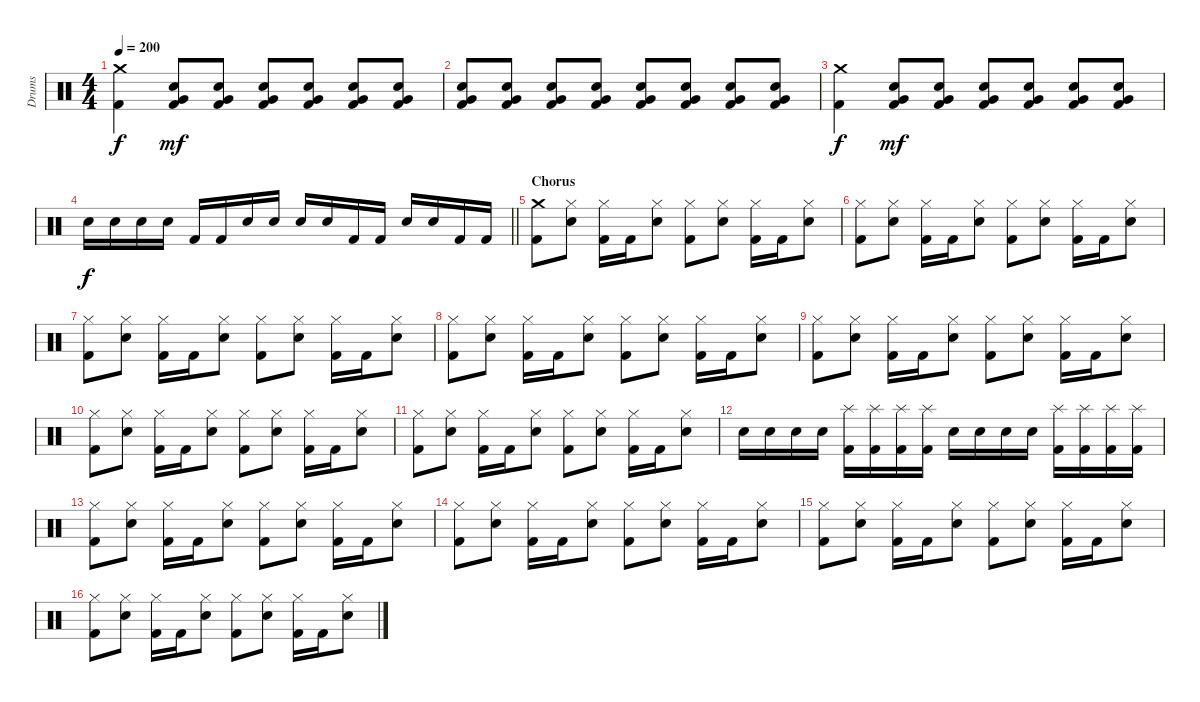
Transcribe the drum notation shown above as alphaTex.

\track ("Drums" "Drums") {instrument percussion}
\staff {score}
\articulation defaults
\ts (4 4)
\tempo 200
\clef neutral
\ks c
("Kick (hit) 2" "Crash medium (hit)").4{dy f} ("Kick (hit) 2" "Snare (hit) 2" "Very Low Tom (hit)").8{dy mf} ("Kick (hit) 2" "Snare (hit) 2" "Very Low Tom (hit)").8 ("Kick (hit) 2" "Snare (hit) 2" "Very Low Tom (hit)").8 ("Kick (hit) 2" "Snare (hit) 2" "Very Low Tom (hit)").8 ("Kick (hit) 2" "Snare (hit) 2" "Very Low Tom (hit)").8 ("Kick (hit) 2" "Snare (hit) 2" "Very Low Tom (hit)").8 |
("Kick (hit) 2" "Snare (hit) 2" "Very Low Tom (hit)").8 ("Kick (hit) 2" "Snare (hit) 2" "Very Low Tom (hit)").8 ("Kick (hit) 2" "Snare (hit) 2" "Very Low Tom (hit)").8 ("Kick (hit) 2" "Snare (hit) 2" "Very Low Tom (hit)").8 ("Kick (hit) 2" "Snare (hit) 2" "Very Low Tom (hit)").8 ("Kick (hit) 2" "Snare (hit) 2" "Very Low Tom (hit)").8 ("Kick (hit) 2" "Snare (hit) 2" "Very Low Tom (hit)").8 ("Kick (hit) 2" "Snare (hit) 2" "Very Low Tom (hit)").8 |
("Kick (hit) 2" "Crash medium (hit)").4{dy f} ("Kick (hit) 2" "Snare (hit) 2" "Very Low Tom (hit)").8{dy mf} ("Kick (hit) 2" "Snare (hit) 2" "Very Low Tom (hit)").8 ("Kick (hit) 2" "Snare (hit) 2" "Very Low Tom (hit)").8 ("Kick (hit) 2" "Snare (hit) 2" "Very Low Tom (hit)").8 ("Kick (hit) 2" "Snare (hit) 2" "Very Low Tom (hit)").8 ("Kick (hit) 2" "Snare (hit) 2" "Very Low Tom (hit)").8 |
\barLineRight lightlight "Snare (hit) 2".16{dy f} "Snare (hit) 2".16 "Snare (hit) 2".16 "Snare (hit) 2".16 "Kick (hit) 2".16 "Kick (hit) 2".16 "Snare (hit) 2".16 "Snare (hit) 2".16 "Snare (hit) 2".16 "Snare (hit) 2".16 "Kick (hit) 2".16 "Kick (hit) 2".16 "Snare (hit) 2".16 "Snare (hit) 2".16 "Kick (hit) 2".16 "Kick (hit) 2".16
|
\section ("" "Chorus")
("Kick (hit) 2" "Crash medium (hit)").8 ("Snare (hit) 2" "Hi-Hat (closed)").8 ("Kick (hit) 2" "Hi-Hat (closed)").16 "Kick (hit) 2".16 ("Snare (hit) 2" "Hi-Hat (closed)").8 ("Kick (hit) 2" "Hi-Hat (closed)").8 ("Snare (hit) 2" "Hi-Hat (closed)").8 ("Kick (hit) 2" "Hi-Hat (closed)").16 "Kick (hit) 2".16 ("Snare (hit) 2" "Hi-Hat (closed)").8 |
("Kick (hit) 2" "Hi-Hat (closed)").8 ("Snare (hit) 2" "Hi-Hat (closed)").8 ("Kick (hit) 2" "Hi-Hat (closed)").16 "Kick (hit) 2".16 ("Snare (hit) 2" "Hi-Hat (closed)").8 ("Kick (hit) 2" "Hi-Hat (closed)").8 ("Snare (hit) 2" "Hi-Hat (closed)").8 ("Kick (hit) 2" "Hi-Hat (closed)").16 "Kick (hit) 2".16 ("Snare (hit) 2" "Hi-Hat (closed)").8 |
("Kick (hit) 2" "Hi-Hat (closed)").8 ("Snare (hit) 2" "Hi-Hat (closed)").8 ("Kick (hit) 2" "Hi-Hat (closed)").16 "Kick (hit) 2".16 ("Snare (hit) 2" "Hi-Hat (closed)").8 ("Kick (hit) 2" "Hi-Hat (closed)").8 ("Snare (hit) 2" "Hi-Hat (closed)").8 ("Kick (hit) 2" "Hi-Hat (closed)").16 "Kick (hit) 2".16 ("Snare (hit) 2" "Hi-Hat (closed)").8 |
("Kick (hit) 2" "Hi-Hat (closed)").8 ("Snare (hit) 2" "Hi-Hat (closed)").8 ("Kick (hit) 2" "Hi-Hat (closed)").16 "Kick (hit) 2".16 ("Snare (hit) 2" "Hi-Hat (closed)").8 ("Kick (hit) 2" "Hi-Hat (closed)").8 ("Snare (hit) 2" "Hi-Hat (closed)").8 ("Kick (hit) 2" "Hi-Hat (closed)").16 "Kick (hit) 2".16 ("Snare (hit) 2" "Hi-Hat (closed)").8 |
("Kick (hit) 2" "Hi-Hat (closed)").8 ("Snare (hit) 2" "Hi-Hat (closed)").8 ("Kick (hit) 2" "Hi-Hat (closed)").16 "Kick (hit) 2".16 ("Snare (hit) 2" "Hi-Hat (closed)").8 ("Kick (hit) 2" "Hi-Hat (closed)").8 ("Snare (hit) 2" "Hi-Hat (closed)").8 ("Kick (hit) 2" "Hi-Hat (closed)").16 "Kick (hit) 2".16 ("Snare (hit) 2" "Hi-Hat (closed)").8 |
("Kick (hit) 2" "Hi-Hat (closed)").8 ("Snare (hit) 2" "Hi-Hat (closed)").8 ("Kick (hit) 2" "Hi-Hat (closed)").16 "Kick (hit) 2".16 ("Snare (hit) 2" "Hi-Hat (closed)").8 ("Kick (hit) 2" "Hi-Hat (closed)").8 ("Snare (hit) 2" "Hi-Hat (closed)").8 ("Kick (hit) 2" "Hi-Hat (closed)").16 "Kick (hit) 2".16 ("Snare (hit) 2" "Hi-Hat (closed)").8 |
("Kick (hit) 2" "Hi-Hat (closed)").8 ("Snare (hit) 2" "Hi-Hat (closed)").8 ("Kick (hit) 2" "Hi-Hat (closed)").16 "Kick (hit) 2".16 ("Snare (hit) 2" "Hi-Hat (closed)").8 ("Kick (hit) 2" "Hi-Hat (closed)").8 ("Snare (hit) 2" "Hi-Hat (closed)").8 ("Kick (hit) 2" "Hi-Hat (closed)").16 "Kick (hit) 2".16 ("Snare (hit) 2" "Hi-Hat (closed)").8 |
"Snare (hit) 2".16 "Snare (hit) 2".16 "Snare (hit) 2".16 "Snare (hit) 2".16 ("Kick (hit) 2" "Splash (hit)").16 ("Kick (hit) 2" "Splash (hit)").16 ("Kick (hit) 2" "Splash (hit)").16 ("Kick (hit) 2" "Splash (hit)").16 "Snare (hit) 2".16 "Snare (hit) 2".16 "Snare (hit) 2".16 "Snare (hit) 2".16 ("Kick (hit) 2" "Splash (hit)").16 ("Kick (hit) 2" "Splash (hit)").16 ("Kick (hit) 2" "Splash (hit)").16 ("Kick (hit) 2" "Splash (hit)").16 |
("Kick (hit) 2" "Hi-Hat (closed)").8 ("Snare (hit) 2" "Hi-Hat (closed)").8 ("Kick (hit) 2" "Hi-Hat (closed)").16 "Kick (hit) 2".16 ("Snare (hit) 2" "Hi-Hat (closed)").8 ("Kick (hit) 2" "Hi-Hat (closed)").8 ("Snare (hit) 2" "Hi-Hat (closed)").8 ("Kick (hit) 2" "Hi-Hat (closed)").16 "Kick (hit) 2".16 ("Snare (hit) 2" "Hi-Hat (closed)").8 |
("Kick (hit) 2" "Hi-Hat (closed)").8 ("Snare (hit) 2" "Hi-Hat (closed)").8 ("Kick (hit) 2" "Hi-Hat (closed)").16 "Kick (hit) 2".16 ("Snare (hit) 2" "Hi-Hat (closed)").8 ("Kick (hit) 2" "Hi-Hat (closed)").8 ("Snare (hit) 2" "Hi-Hat (closed)").8 ("Kick (hit) 2" "Hi-Hat (closed)").16 "Kick (hit) 2".16 ("Snare (hit) 2" "Hi-Hat (closed)").8 |
("Kick (hit) 2" "Hi-Hat (closed)").8 ("Snare (hit) 2" "Hi-Hat (closed)").8 ("Kick (hit) 2" "Hi-Hat (closed)").16 "Kick (hit) 2".16 ("Snare (hit) 2" "Hi-Hat (closed)").8 ("Kick (hit) 2" "Hi-Hat (closed)").8 ("Snare (hit) 2" "Hi-Hat (closed)").8 ("Kick (hit) 2" "Hi-Hat (closed)").16 "Kick (hit) 2".16 ("Snare (hit) 2" "Hi-Hat (closed)").8 |
("Kick (hit) 2" "Hi-Hat (closed)").8 ("Snare (hit) 2" "Hi-Hat (closed)").8 ("Kick (hit) 2" "Hi-Hat (closed)").16 "Kick (hit) 2".16 ("Snare (hit) 2" "Hi-Hat (closed)").8 ("Kick (hit) 2" "Hi-Hat (closed)").8 ("Snare (hit) 2" "Hi-Hat (closed)").8 ("Kick (hit) 2" "Hi-Hat (closed)").16 "Kick (hit) 2".16 ("Snare (hit) 2" "Hi-Hat (closed)").8
